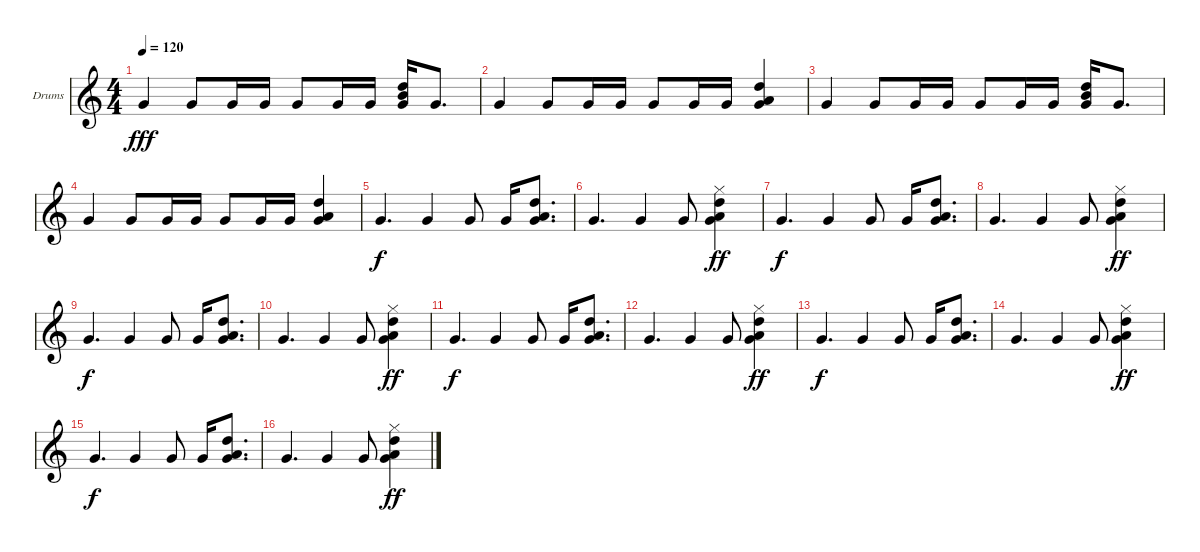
\defaultSystemsLayout 4
\bracketExtendMode groupsimilarinstruments
\firstSystemTrackNameOrientation horizontal
\otherSystemsTrackNameOrientation horizontal
\track ("Drumkit" "Drums") {instrument percussion}
\staff {score}
\articulation defaults
\ts (4 4)
\tempo 120
\clef g2
\ks c "Very Low Tom (hit)".4{dy fff} "Very Low Tom (hit)".8 "Very Low Tom (hit)".16 "Very Low Tom (hit)".16 "Very Low Tom (hit)".8 "Very Low Tom (hit)".16 "Very Low Tom (hit)".16
("Very Low Tom (hit)" "High Tom (hit)" "Mid Tom (hit)").16 "Very Low Tom (hit)".8{d} |
"Very Low Tom (hit)".4 "Very Low Tom (hit)".8 "Very Low Tom (hit)".16 "Very Low Tom (hit)".16 "Very Low Tom (hit)".8 "Very Low Tom (hit)".16 "Very Low Tom (hit)".16 ("Very Low Tom (hit)" "Low Tom (hit)" "High Tom (hit)").4 |
"Very Low Tom (hit)".4 "Very Low Tom (hit)".8 "Very Low Tom (hit)".16 "Very Low Tom (hit)".16 "Very Low Tom (hit)".8 "Very Low Tom (hit)".16 "Very Low Tom (hit)".16 ("Very Low Tom (hit)" "High Tom (hit)" "Mid Tom (hit)").16 "Very Low Tom (hit)".8{d} |
"Very Low Tom (hit)".4 "Very Low Tom (hit)".8 "Very Low Tom (hit)".16 "Very Low Tom (hit)".16 "Very Low Tom (hit)".8 "Very Low Tom (hit)".16 "Very Low Tom (hit)".16 ("Very Low Tom (hit)" "Low Tom (hit)" "High Tom (hit)").4 |
"Very Low Tom (hit)".4{d dy f} "Very Low Tom (hit)".4 "Very Low Tom (hit)".8 "Very Low Tom (hit)".16 ("Very Low Tom (hit)" "High Tom (hit)" "Low Tom (hit)").8{d} |
"Very Low Tom (hit)".4{d} "Very Low Tom (hit)".4 "Very Low Tom (hit)".8 ("Very Low Tom (hit)" "High Tom (hit)" "Low Tom (hit)" "Hi-Hat (closed)").4{dy ff} |
"Very Low Tom (hit)".4{d dy f} "Very Low Tom (hit)".4 "Very Low Tom (hit)".8 "Very Low Tom (hit)".16 ("Very Low Tom (hit)" "High Tom (hit)" "Low Tom (hit)").8{d} |
"Very Low Tom (hit)".4{d} "Very Low Tom (hit)".4 "Very Low Tom (hit)".8 ("Very Low Tom (hit)" "High Tom (hit)" "Low Tom (hit)" "Hi-Hat (closed)").4{dy ff} |
"Very Low Tom (hit)".4{d dy f} "Very Low Tom (hit)".4 "Very Low Tom (hit)".8 "Very Low Tom (hit)".16 ("Very Low Tom (hit)" "High Tom (hit)" "Low Tom (hit)").8{d} |
"Very Low Tom (hit)".4{d} "Very Low Tom (hit)".4 "Very Low Tom (hit)".8 ("Very Low Tom (hit)" "High Tom (hit)" "Low Tom (hit)" "Hi-Hat (closed)").4{dy ff} |
"Very Low Tom (hit)".4{d dy f} "Very Low Tom (hit)".4 "Very Low Tom (hit)".8 "Very Low Tom (hit)".16 ("Very Low Tom (hit)" "High Tom (hit)" "Low Tom (hit)").8{d} |
"Very Low Tom (hit)".4{d} "Very Low Tom (hit)".4 "Very Low Tom (hit)".8 ("Very Low Tom (hit)" "High Tom (hit)" "Low Tom (hit)" "Hi-Hat (closed)").4{dy ff} |
"Very Low Tom (hit)".4{d dy f} "Very Low Tom (hit)".4 "Very Low Tom (hit)".8 "Very Low Tom (hit)".16 ("Very Low Tom (hit)" "High Tom (hit)" "Low Tom (hit)").8{d} |
"Very Low Tom (hit)".4{d} "Very Low Tom (hit)".4 "Very Low Tom (hit)".8 ("Very Low Tom (hit)" "High Tom (hit)" "Low Tom (hit)" "Hi-Hat (closed)").4{dy ff} |
"Very Low Tom (hit)".4{d dy f} "Very Low Tom (hit)".4 "Very Low Tom (hit)".8 "Very Low Tom (hit)".16 ("Very Low Tom (hit)" "High Tom (hit)" "Low Tom (hit)").8{d} |
"Very Low Tom (hit)".4{d} "Very Low Tom (hit)".4 "Very Low Tom (hit)".8 ("Very Low Tom (hit)" "High Tom (hit)" "Low Tom (hit)" "Hi-Hat (closed)").4{dy ff}
